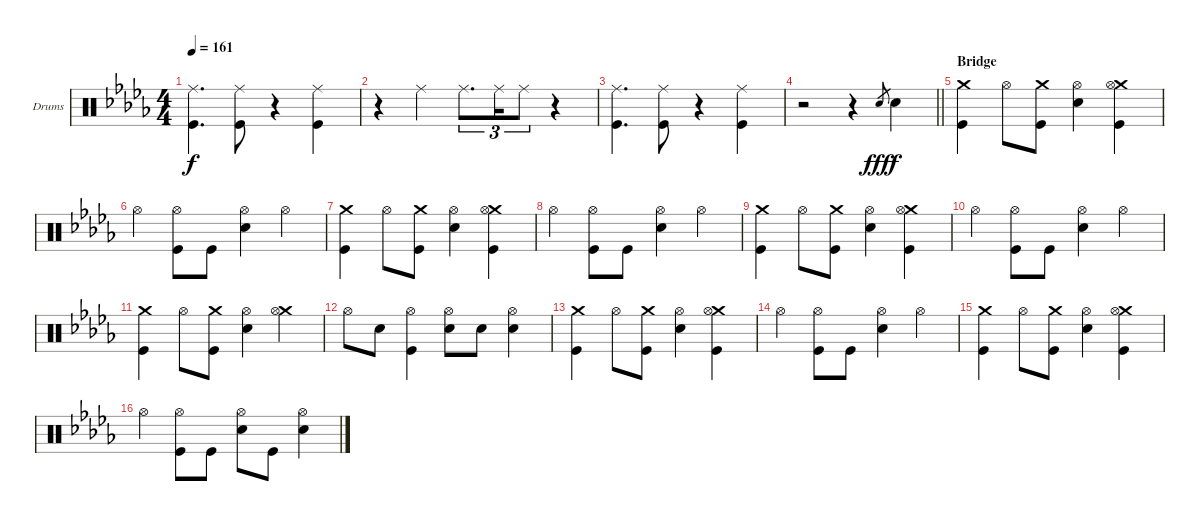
\bracketExtendMode groupsimilarinstruments
\firstSystemTrackNameOrientation horizontal
\otherSystemsTrackNameOrientation horizontal
\track ("Drumkit" "Drums") {instrument percussion}
\staff {score}
\articulation defaults
\ts (4 4)
\tempo 161
\clef neutral
\ks db
("Ride (middle)" "Kick (hit)").4{d dy f} ("Ride (middle)" "Kick (hit)").8 r.4 ("Ride (middle)" "Kick (hit)").4 |
r.4 "Ride (middle)".4 "Ride (middle)".8{d tu (3 2)} "Ride (middle)".16{tu (3 2)} "Ride (middle)".8{tu (3 2)} r.4 |
("Ride (middle)" "Kick (hit)").4{d} ("Ride (middle)" "Kick (hit)").8 r.4 ("Ride (middle)" "Kick (hit)").4 |
\barLineRight lightlight
r.2 r.4 "Snare (hit) 2".8{gr dy fff} "Snare (hit) 2".4{dy f} |
\section ("" "Bridge")
("Crash medium (hit)" "Kick (hit)").4 "Hi-Hat (open)".8 ("Kick (hit)" "Crash medium (hit)").8 ("Snare (hit) 2" "Hi-Hat (open)").4 ("Kick (hit)" "Crash medium (hit)" "Hi-Hat (open)").4 |
"Hi-Hat (open)".4 ("Kick (hit)" "Hi-Hat (open)").8 "Kick (hit)".8 ("Snare (hit) 2" "Hi-Hat (open)").4 "Hi-Hat (open)".4 |
("Crash medium (hit)" "Kick (hit)").4 "Hi-Hat (open)".8 ("Kick (hit)" "Crash medium (hit)").8 ("Snare (hit) 2" "Hi-Hat (open)").4 ("Kick (hit)" "Crash medium (hit)" "Hi-Hat (open)").4 |
"Hi-Hat (open)".4 ("Kick (hit)" "Hi-Hat (open)").8 "Kick (hit)".8 ("Snare (hit) 2" "Hi-Hat (open)").4 "Hi-Hat (open)".4 |
("Crash medium (hit)" "Kick (hit)").4 "Hi-Hat (open)".8 ("Kick (hit)" "Crash medium (hit)").8 ("Snare (hit) 2" "Hi-Hat (open)").4 ("Kick (hit)" "Crash medium (hit)" "Hi-Hat (open)").4 |
"Hi-Hat (open)".4 ("Kick (hit)" "Hi-Hat (open)").8 "Kick (hit)".8 ("Snare (hit) 2" "Hi-Hat (open)").4 "Hi-Hat (open)".4 |
("Crash medium (hit)" "Kick (hit)").4 "Hi-Hat (open)".8 ("Kick (hit)" "Crash medium (hit)").8 ("Snare (hit) 2" "Hi-Hat (open)").4 ("Crash medium (hit)" "Hi-Hat (open)").4 |
"Hi-Hat (open)".8 "Snare (hit) 2".8 ("Kick (hit)" "Hi-Hat (open)").4 ("Snare (hit) 2" "Hi-Hat (open)").8 "Snare (hit) 2".8 ("Snare (hit) 2" "Hi-Hat (open)").4 |
("Crash medium (hit)" "Kick (hit)").4 "Hi-Hat (open)".8 ("Kick (hit)" "Crash medium (hit)").8 ("Snare (hit) 2" "Hi-Hat (open)").4 ("Kick (hit)" "Crash medium (hit)" "Hi-Hat (open)").4 |
"Hi-Hat (open)".4 ("Kick (hit)" "Hi-Hat (open)").8 "Kick (hit)".8 ("Snare (hit) 2" "Hi-Hat (open)").4 "Hi-Hat (open)".4 |
("Crash medium (hit)" "Kick (hit)").4 "Hi-Hat (open)".8 ("Kick (hit)" "Crash medium (hit)").8 ("Snare (hit) 2" "Hi-Hat (open)").4 ("Kick (hit)" "Crash medium (hit)" "Hi-Hat (open)").4 |
"Hi-Hat (open)".4 ("Kick (hit)" "Hi-Hat (open)").8 "Kick (hit)".8 ("Snare (hit) 2" "Hi-Hat (open)").8 "Kick (hit)".8 ("Hi-Hat (open)" "Snare (hit) 2").4
